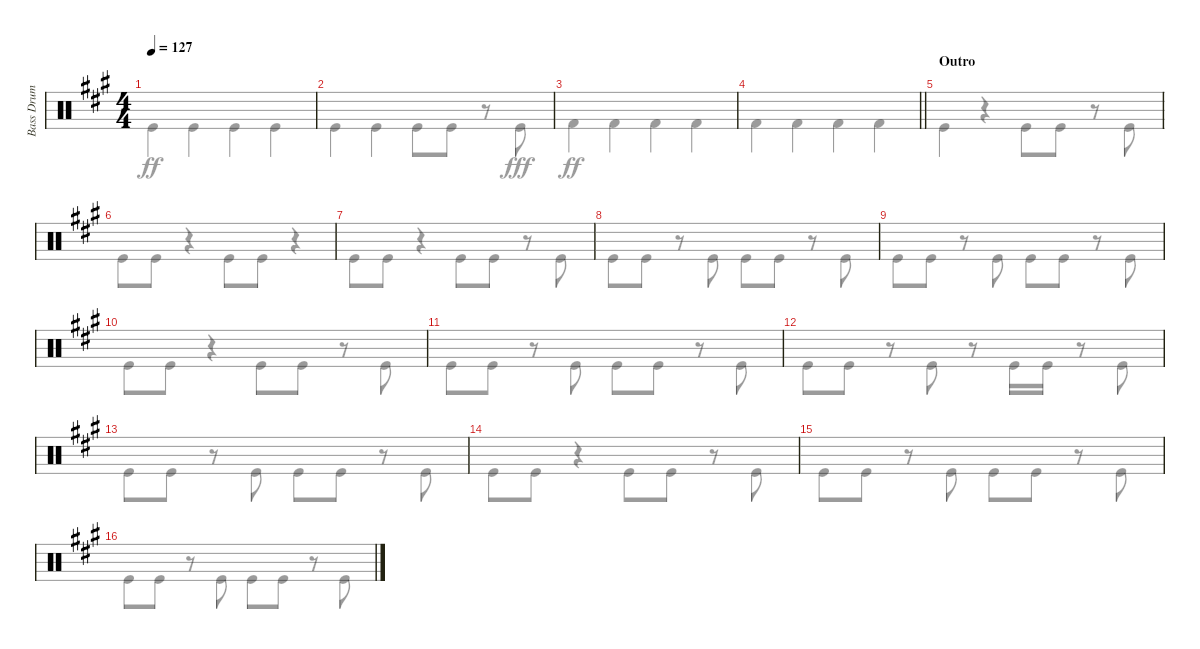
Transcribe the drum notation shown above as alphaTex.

\track ("Bass Drum" "Bass Drum") {instrument percussion}
\staff {score}
\articulation defaults
\voice
\ts (4 4)
\tempo 127
\clef neutral
\ks a
|
|
|
\barLineRight lightlight
|
\section ("" "Outro")
|
|
|
|
|
|
|
|
|
|
|
\voice
\clef neutral
\ks a "Kick (hit)".4{dy ff} "Kick (hit)".4 "Kick (hit)".4 "Kick (hit)".4
|
"Kick (hit)".4 "Kick (hit)".4 "Kick (hit)".8 "Kick (hit)".8 r.8 "Kick (hit)".8{dy fff} |
"Kick (hit) 2".4{dy ff} "Kick (hit) 2".4 "Kick (hit) 2".4 "Kick (hit) 2".4 |
\barLineRight lightlight "Kick (hit) 2".4 "Kick (hit) 2".4 "Kick (hit) 2".4 "Kick (hit) 2".4
|
"Kick (hit)".4 r.4 "Kick (hit)".8 "Kick (hit)".8 r.8 "Kick (hit)".8 |
"Kick (hit)".8 "Kick (hit)".8 r.4 "Kick (hit)".8 "Kick (hit)".8 r.4 |
"Kick (hit)".8 "Kick (hit)".8 r.4 "Kick (hit)".8 "Kick (hit)".8 r.8 "Kick (hit)".8 |
"Kick (hit)".8 "Kick (hit)".8 r.8 "Kick (hit)".8 "Kick (hit)".8 "Kick (hit)".8 r.8 "Kick (hit)".8 |
"Kick (hit)".8 "Kick (hit)".8 r.8 "Kick (hit)".8 "Kick (hit)".8 "Kick (hit)".8 r.8 "Kick (hit)".8 |
"Kick (hit)".8 "Kick (hit)".8 r.4 "Kick (hit)".8 "Kick (hit)".8 r.8 "Kick (hit)".8 |
"Kick (hit)".8 "Kick (hit)".8 r.8 "Kick (hit)".8 "Kick (hit)".8 "Kick (hit)".8 r.8 "Kick (hit)".8 |
"Kick (hit)".8 "Kick (hit)".8 r.8 "Kick (hit)".8 r.8 "Kick (hit)".16 "Kick (hit)".16 r.8 "Kick (hit)".8 |
"Kick (hit)".8 "Kick (hit)".8 r.8 "Kick (hit)".8 "Kick (hit)".8 "Kick (hit)".8 r.8 "Kick (hit)".8 |
"Kick (hit)".8 "Kick (hit)".8 r.4 "Kick (hit)".8 "Kick (hit)".8 r.8 "Kick (hit)".8 |
"Kick (hit)".8 "Kick (hit)".8 r.8 "Kick (hit)".8 "Kick (hit)".8 "Kick (hit)".8 r.8 "Kick (hit)".8 |
"Kick (hit)".8 "Kick (hit)".8 r.8 "Kick (hit)".8 "Kick (hit)".8 "Kick (hit)".8 r.8 "Kick (hit)".8
